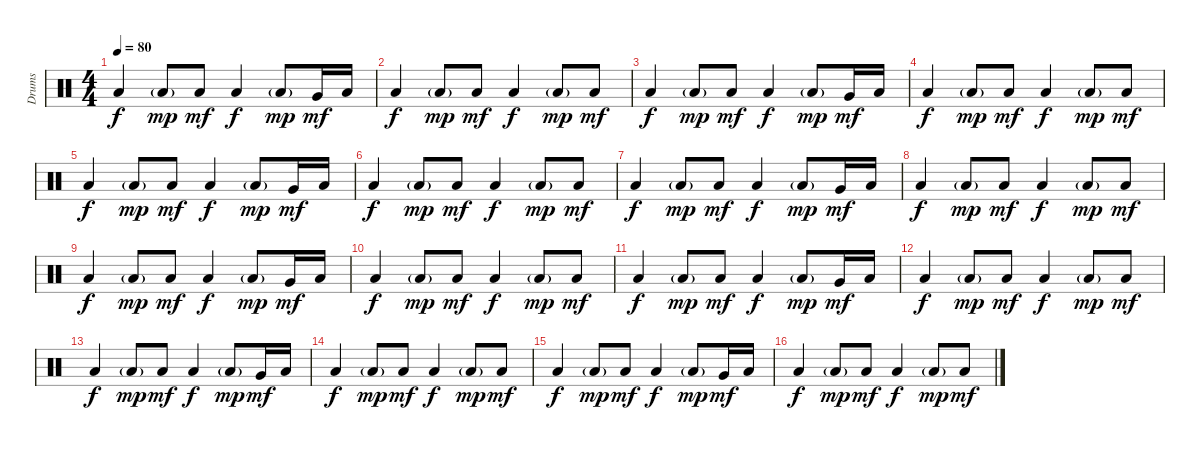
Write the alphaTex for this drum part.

\track ("Drums" "Drums") {instrument percussion}
\staff {score}
\articulation defaults
\ts (4 4)
\tempo 80
\clef neutral
\ks c "Low Floor Tom (hit)".4{dy f} "Low Floor Tom (hit)"{g}.8{dy mp} "Low Floor Tom (hit)".8{dy mf} "Low Floor Tom (hit)".4{dy f} "Low Floor Tom (hit)"{g}.8{dy mp} "Very Low Tom (hit)".16{dy mf} "Low Floor Tom (hit)".16
|
"Low Floor Tom (hit)".4{dy f} "Low Floor Tom (hit)"{g}.8{dy mp} "Low Floor Tom (hit)".8{dy mf} "Low Floor Tom (hit)".4{dy f} "Low Floor Tom (hit)"{g}.8{dy mp} "Low Floor Tom (hit)".8{dy mf} |
"Low Floor Tom (hit)".4{dy f} "Low Floor Tom (hit)"{g}.8{dy mp} "Low Floor Tom (hit)".8{dy mf} "Low Floor Tom (hit)".4{dy f} "Low Floor Tom (hit)"{g}.8{dy mp} "Very Low Tom (hit)".16{dy mf} "Low Floor Tom (hit)".16 |
"Low Floor Tom (hit)".4{dy f} "Low Floor Tom (hit)"{g}.8{dy mp} "Low Floor Tom (hit)".8{dy mf} "Low Floor Tom (hit)".4{dy f} "Low Floor Tom (hit)"{g}.8{dy mp} "Low Floor Tom (hit)".8{dy mf} |
"Low Floor Tom (hit)".4{dy f} "Low Floor Tom (hit)"{g}.8{dy mp} "Low Floor Tom (hit)".8{dy mf} "Low Floor Tom (hit)".4{dy f} "Low Floor Tom (hit)"{g}.8{dy mp} "Very Low Tom (hit)".16{dy mf} "Low Floor Tom (hit)".16 |
"Low Floor Tom (hit)".4{dy f} "Low Floor Tom (hit)"{g}.8{dy mp} "Low Floor Tom (hit)".8{dy mf} "Low Floor Tom (hit)".4{dy f} "Low Floor Tom (hit)"{g}.8{dy mp} "Low Floor Tom (hit)".8{dy mf} |
"Low Floor Tom (hit)".4{dy f} "Low Floor Tom (hit)"{g}.8{dy mp} "Low Floor Tom (hit)".8{dy mf} "Low Floor Tom (hit)".4{dy f} "Low Floor Tom (hit)"{g}.8{dy mp} "Very Low Tom (hit)".16{dy mf} "Low Floor Tom (hit)".16 |
"Low Floor Tom (hit)".4{dy f} "Low Floor Tom (hit)"{g}.8{dy mp} "Low Floor Tom (hit)".8{dy mf} "Low Floor Tom (hit)".4{dy f} "Low Floor Tom (hit)"{g}.8{dy mp} "Low Floor Tom (hit)".8{dy mf} |
"Low Floor Tom (hit)".4{dy f} "Low Floor Tom (hit)"{g}.8{dy mp} "Low Floor Tom (hit)".8{dy mf} "Low Floor Tom (hit)".4{dy f} "Low Floor Tom (hit)"{g}.8{dy mp} "Very Low Tom (hit)".16{dy mf} "Low Floor Tom (hit)".16 |
"Low Floor Tom (hit)".4{dy f} "Low Floor Tom (hit)"{g}.8{dy mp} "Low Floor Tom (hit)".8{dy mf} "Low Floor Tom (hit)".4{dy f} "Low Floor Tom (hit)"{g}.8{dy mp} "Low Floor Tom (hit)".8{dy mf} |
"Low Floor Tom (hit)".4{dy f} "Low Floor Tom (hit)"{g}.8{dy mp} "Low Floor Tom (hit)".8{dy mf} "Low Floor Tom (hit)".4{dy f} "Low Floor Tom (hit)"{g}.8{dy mp} "Very Low Tom (hit)".16{dy mf} "Low Floor Tom (hit)".16 |
"Low Floor Tom (hit)".4{dy f} "Low Floor Tom (hit)"{g}.8{dy mp} "Low Floor Tom (hit)".8{dy mf} "Low Floor Tom (hit)".4{dy f} "Low Floor Tom (hit)"{g}.8{dy mp} "Low Floor Tom (hit)".8{dy mf} |
"Low Floor Tom (hit)".4{dy f} "Low Floor Tom (hit)"{g}.8{dy mp} "Low Floor Tom (hit)".8{dy mf} "Low Floor Tom (hit)".4{dy f} "Low Floor Tom (hit)"{g}.8{dy mp} "Very Low Tom (hit)".16{dy mf} "Low Floor Tom (hit)".16 |
"Low Floor Tom (hit)".4{dy f} "Low Floor Tom (hit)"{g}.8{dy mp} "Low Floor Tom (hit)".8{dy mf} "Low Floor Tom (hit)".4{dy f} "Low Floor Tom (hit)"{g}.8{dy mp} "Low Floor Tom (hit)".8{dy mf} |
"Low Floor Tom (hit)".4{dy f} "Low Floor Tom (hit)"{g}.8{dy mp} "Low Floor Tom (hit)".8{dy mf} "Low Floor Tom (hit)".4{dy f} "Low Floor Tom (hit)"{g}.8{dy mp} "Very Low Tom (hit)".16{dy mf} "Low Floor Tom (hit)".16 |
"Low Floor Tom (hit)".4{dy f} "Low Floor Tom (hit)"{g}.8{dy mp} "Low Floor Tom (hit)".8{dy mf} "Low Floor Tom (hit)".4{dy f} "Low Floor Tom (hit)"{g}.8{dy mp} "Low Floor Tom (hit)".8{dy mf}
